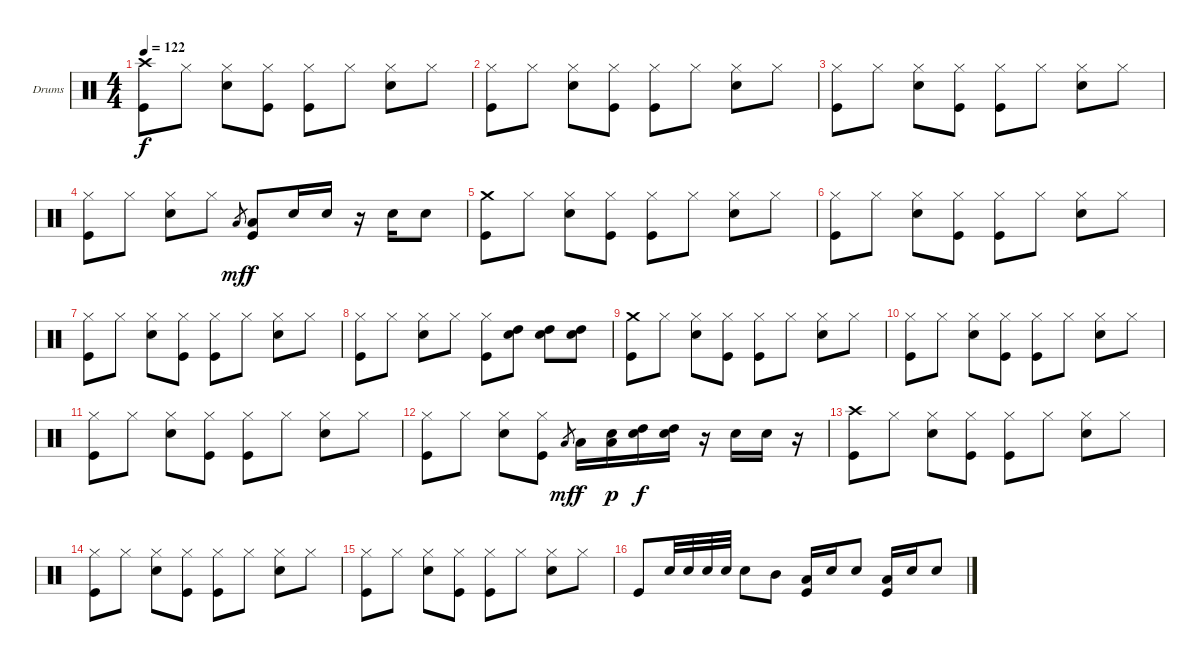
\bracketExtendMode groupsimilarinstruments
\firstSystemTrackNameOrientation horizontal
\otherSystemsTrackNameOrientation horizontal
\track ("Drumkit" "Drums") {instrument percussion}
\staff {score}
\articulation defaults
\ts (4 4)
\tempo 122
\clef neutral
\ks c
("Crash high (hit)" "Kick (hit)").8{dy f} "Hi-Hat (closed)".8 ("Hi-Hat (closed)" "Snare (hit) 2").8 ("Hi-Hat (closed)" "Kick (hit)").8 ("Hi-Hat (closed)" "Kick (hit)").8 "Hi-Hat (closed)".8 ("Hi-Hat (closed)" "Snare (hit) 2").8 "Hi-Hat (closed)".8 |
("Hi-Hat (closed)" "Kick (hit)").8 "Hi-Hat (closed)".8 ("Hi-Hat (closed)" "Snare (hit) 2").8 ("Hi-Hat (closed)" "Kick (hit)").8 ("Hi-Hat (closed)" "Kick (hit)").8 "Hi-Hat (closed)".8 ("Hi-Hat (closed)" "Snare (hit) 2").8 "Hi-Hat (closed)".8 |
("Hi-Hat (closed)" "Kick (hit)").8 "Hi-Hat (closed)".8 ("Hi-Hat (closed)" "Snare (hit) 2").8 ("Hi-Hat (closed)" "Kick (hit)").8 ("Hi-Hat (closed)" "Kick (hit)").8 "Hi-Hat (closed)".8 ("Hi-Hat (closed)" "Snare (hit) 2").8 "Hi-Hat (closed)".8 |
("Hi-Hat (closed)" "Kick (hit)").8 "Hi-Hat (closed)".8 ("Hi-Hat (closed)" "Snare (hit) 2").8 "Hi-Hat (closed)".8 "Low Tom (hit)".8{gr dy mf} ("Low Tom (hit)" "Kick (hit)").8{dy f} "Snare (hit) 2".16 "Snare (hit) 2".16 r.16 "Snare (hit) 2".16 "Snare (hit) 2".8 |
("Crash medium (hit)" "Kick (hit)").8 "Hi-Hat (closed)".8 ("Hi-Hat (closed)" "Snare (hit) 2").8 ("Hi-Hat (closed)" "Kick (hit)").8 ("Hi-Hat (closed)" "Kick (hit)").8 "Hi-Hat (closed)".8 ("Hi-Hat (closed)" "Snare (hit) 2").8 "Hi-Hat (closed)".8 |
("Hi-Hat (closed)" "Kick (hit)").8 "Hi-Hat (closed)".8 ("Hi-Hat (closed)" "Snare (hit) 2").8 ("Hi-Hat (closed)" "Kick (hit)").8 ("Hi-Hat (closed)" "Kick (hit)").8 "Hi-Hat (closed)".8 ("Hi-Hat (closed)" "Snare (hit) 2").8 "Hi-Hat (closed)".8 |
("Hi-Hat (closed)" "Kick (hit)").8 "Hi-Hat (closed)".8 ("Hi-Hat (closed)" "Snare (hit) 2").8 ("Hi-Hat (closed)" "Kick (hit)").8 ("Hi-Hat (closed)" "Kick (hit)").8 "Hi-Hat (closed)".8 ("Hi-Hat (closed)" "Snare (hit) 2").8 "Hi-Hat (closed)".8 |
("Hi-Hat (closed)" "Kick (hit)").8 "Hi-Hat (closed)".8 ("Hi-Hat (closed)" "Snare (hit) 2").8 "Hi-Hat (closed)".8 ("Hi-Hat (closed)" "Kick (hit)").8 ("High Tom (hit)" "Snare (hit) 2").8 ("High Tom (hit)" "Snare (hit) 2").8 ("High Tom (hit)" "Snare (hit) 2").8 |
("Crash medium (hit)" "Kick (hit)").8 "Hi-Hat (closed)".8 ("Hi-Hat (closed)" "Snare (hit) 2").8 ("Hi-Hat (closed)" "Kick (hit)").8 ("Hi-Hat (closed)" "Kick (hit)").8 "Hi-Hat (closed)".8 ("Hi-Hat (closed)" "Snare (hit) 2").8 "Hi-Hat (closed)".8 |
("Hi-Hat (closed)" "Kick (hit)").8 "Hi-Hat (closed)".8 ("Hi-Hat (closed)" "Snare (hit) 2").8 ("Hi-Hat (closed)" "Kick (hit)").8 ("Hi-Hat (closed)" "Kick (hit)").8 "Hi-Hat (closed)".8 ("Hi-Hat (closed)" "Snare (hit) 2").8 "Hi-Hat (closed)".8 |
("Hi-Hat (closed)" "Kick (hit)").8 "Hi-Hat (closed)".8 ("Hi-Hat (closed)" "Snare (hit) 2").8 ("Hi-Hat (closed)" "Kick (hit)").8 ("Hi-Hat (closed)" "Kick (hit)").8 "Hi-Hat (closed)".8 ("Hi-Hat (closed)" "Snare (hit) 2").8 "Hi-Hat (closed)".8 |
("Hi-Hat (closed)" "Kick (hit)").8 "Hi-Hat (closed)".8 ("Hi-Hat (closed)" "Snare (hit) 2").8 ("Hi-Hat (closed)" "Kick (hit)").8 "Low Tom (hit)".8{gr dy mf} "Low Tom (hit)".16{dy f} ("Snare (hit) 2" "Low Tom (hit)").16{dy p} ("High Tom (hit)" "Snare (hit) 2").16{dy f} ("High Tom (hit)" "Snare (hit) 2").16 r.16 "Snare (hit) 2".16 "Snare (hit) 2".16 r.16 |
("Crash high (hit)" "Kick (hit)").8 "Hi-Hat (closed)".8 ("Hi-Hat (closed)" "Snare (hit) 2").8 ("Hi-Hat (closed)" "Kick (hit)").8 ("Hi-Hat (closed)" "Kick (hit)").8 "Hi-Hat (closed)".8 ("Hi-Hat (closed)" "Snare (hit) 2").8 "Hi-Hat (closed)".8 |
("Hi-Hat (closed)" "Kick (hit)").8 "Hi-Hat (closed)".8 ("Hi-Hat (closed)" "Snare (hit) 2").8 ("Hi-Hat (closed)" "Kick (hit)").8 ("Hi-Hat (closed)" "Kick (hit)").8 "Hi-Hat (closed)".8 ("Hi-Hat (closed)" "Snare (hit) 2").8 "Hi-Hat (closed)".8 |
("Hi-Hat (closed)" "Kick (hit)").8 "Hi-Hat (closed)".8 ("Hi-Hat (closed)" "Snare (hit) 2").8 ("Hi-Hat (closed)" "Kick (hit)").8 ("Hi-Hat (closed)" "Kick (hit)").8 "Hi-Hat (closed)".8 ("Hi-Hat (closed)" "Snare (hit) 2").8 "Hi-Hat (closed)".8 |
"Kick (hit)".8 "Snare (hit) 2".32 "Snare (hit) 2".32 "Snare (hit) 2".32 "Snare (hit) 2".32 "Snare (hit) 2".8 "Mid Tom (hit)".8 ("Low Tom (hit)" "Kick (hit)").16 "Snare (hit) 2".16 "Snare (hit) 2".8 ("Low Tom (hit)" "Kick (hit)").16 "Snare (hit) 2".16 "Snare (hit) 2".8
